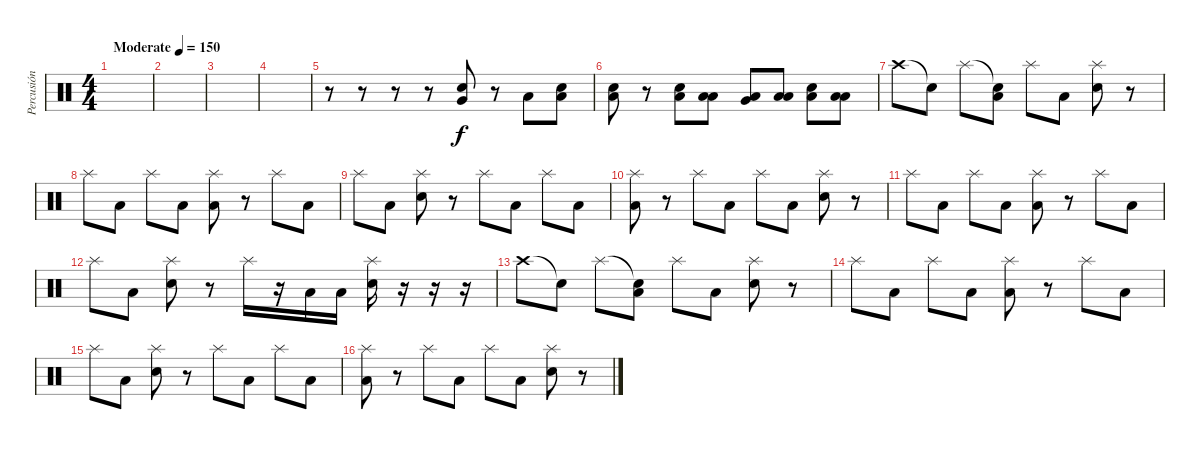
\track ("Percusión" "Percusión") {instrument percussion}
\staff {score}
\articulation defaults
\ts (4 4)
\tempo (150 "Moderate")
\clef neutral
\ks c
|
|
|
|
r.8 r.8 r.8 r.8 ("Very Low Tom (hit)" "Snare (hit) 2").8 r.8 "Low Tom (hit)".8 ("Low Floor Tom (hit)" "Snare (hit) 2").8 |
("Low Floor Tom (hit)" "Snare (hit) 2").8 r.8 ("Low Tom (hit)" "Snare (hit) 2").8 ("Low Floor Tom (hit)" "Low Tom (hit)").8 ("Very Low Tom (hit)" "Low Tom (hit)").8 ("Low Floor Tom (hit)" "Low Tom (hit)").8 ("Low Floor Tom (hit)" "Snare (hit) 2").8 ("Low Tom (hit)" "Low Tom (hit)").8 |
"Crash high (hit)".8 "Snare (hit)"{t}.8 "Splash (hit)".8 ("Snare (hit)"{t} "Low Tom (hit)").8 "Splash (hit)".8 "Low Tom (hit)".8 ("Splash (hit)" "Snare (hit) 2").8 r.8 |
"Splash (hit)".8 "Low Tom (hit)".8 "Splash (hit)".8 "Low Tom (hit)".8 ("Splash (hit)" "Low Tom (hit)").8 r.8 "Splash (hit)".8 "Low Tom (hit)".8 |
"Splash (hit)".8 "Low Tom (hit)".8 ("Splash (hit)" "Snare (hit) 2").8 r.8 "Splash (hit)".8 "Low Tom (hit)".8 "Splash (hit)".8 "Low Tom (hit)".8 |
("Splash (hit)" "Low Tom (hit)").8 r.8 "Splash (hit)".8 "Low Tom (hit)".8 "Splash (hit)".8 "Low Tom (hit)".8 ("Splash (hit)" "Snare (hit) 2").8 r.8 |
"Splash (hit)".8 "Low Tom (hit)".8 "Splash (hit)".8 "Low Tom (hit)".8 ("Splash (hit)" "Low Tom (hit)").8 r.8 "Splash (hit)".8 "Low Tom (hit)".8 |
"Splash (hit)".8 "Low Tom (hit)".8 ("Splash (hit)" "Snare (hit) 2").8 r.8 "Splash (hit)".16 r.16 "Low Tom (hit)".16 "Low Tom (hit)".16 ("Splash (hit)" "Snare (hit) 2").16 r.16 r.16 r.16 |
"Crash high (hit)".8 "Snare (hit)"{t}.8 "Splash (hit)".8 ("Snare (hit)"{t} "Low Tom (hit)").8 "Splash (hit)".8 "Low Tom (hit)".8 ("Splash (hit)" "Snare (hit) 2").8 r.8 |
"Splash (hit)".8 "Low Tom (hit)".8 "Splash (hit)".8 "Low Tom (hit)".8 ("Splash (hit)" "Low Tom (hit)").8 r.8 "Splash (hit)".8 "Low Tom (hit)".8 |
"Splash (hit)".8 "Low Tom (hit)".8 ("Splash (hit)" "Snare (hit) 2").8 r.8 "Splash (hit)".8 "Low Tom (hit)".8 "Splash (hit)".8 "Low Tom (hit)".8 |
("Splash (hit)" "Low Tom (hit)").8 r.8 "Splash (hit)".8 "Low Tom (hit)".8 "Splash (hit)".8 "Low Tom (hit)".8 ("Splash (hit)" "Snare (hit) 2").8 r.8
